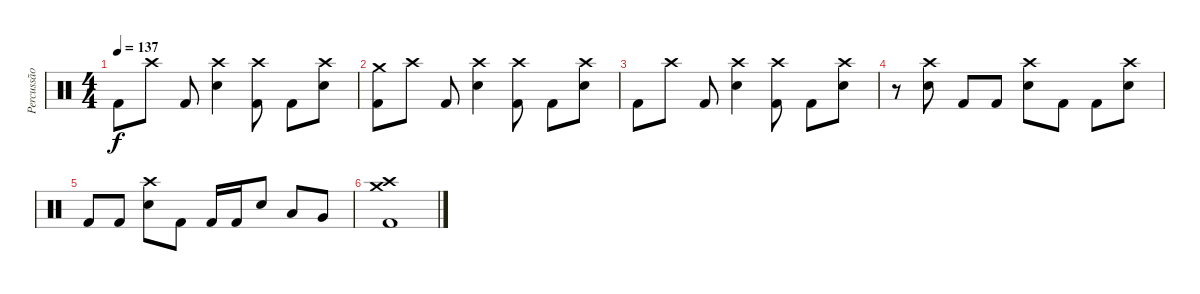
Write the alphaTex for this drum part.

\track ("Percussão" "Percussão") {instrument percussion}
\staff {score}
\articulation defaults
\ts (4 4)
\tempo 137
\clef neutral
\ks c "Kick (hit) 2".8{dy f} "Crash high (hit)".8 "Kick (hit) 2".8
("Crash high (hit)" "Electric Snare (hit)").4 ("Crash high (hit)" "Kick (hit) 2").8 "Kick (hit) 2".8 ("Crash high (hit)" "Electric Snare (hit)").8 |
("Crash medium (hit)" "Kick (hit) 2").8 "Crash high (hit)".8 "Kick (hit) 2".8 ("Crash high (hit)" "Electric Snare (hit)").4 ("Crash high (hit)" "Kick (hit) 2").8 "Kick (hit) 2".8 ("Crash high (hit)" "Electric Snare (hit)").8 |
"Kick (hit) 2".8 "Crash high (hit)".8 "Kick (hit) 2".8 ("Crash high (hit)" "Electric Snare (hit)").4 ("Crash high (hit)" "Kick (hit) 2").8 "Kick (hit) 2".8 ("Crash high (hit)" "Electric Snare (hit)").8 |
r.8 ("Crash high (hit)" "Electric Snare (hit)").8 "Kick (hit) 2".8 "Kick (hit) 2".8 ("Crash high (hit)" "Electric Snare (hit)").8 "Kick (hit) 2".8 "Kick (hit) 2".8 ("Crash high (hit)" "Electric Snare (hit)").8 |
"Kick (hit) 2".8 "Kick (hit) 2".8 ("Crash high (hit)" "Electric Snare (hit)").8 "Kick (hit) 2".8 "Kick (hit) 2".16 "Kick (hit) 2".16 "Electric Snare (hit)".8 "Low Tom (hit)".8 "Very Low Tom (hit)".8 |
("Crash high (hit)" "Crash medium (hit)" "Kick (hit) 2").1
